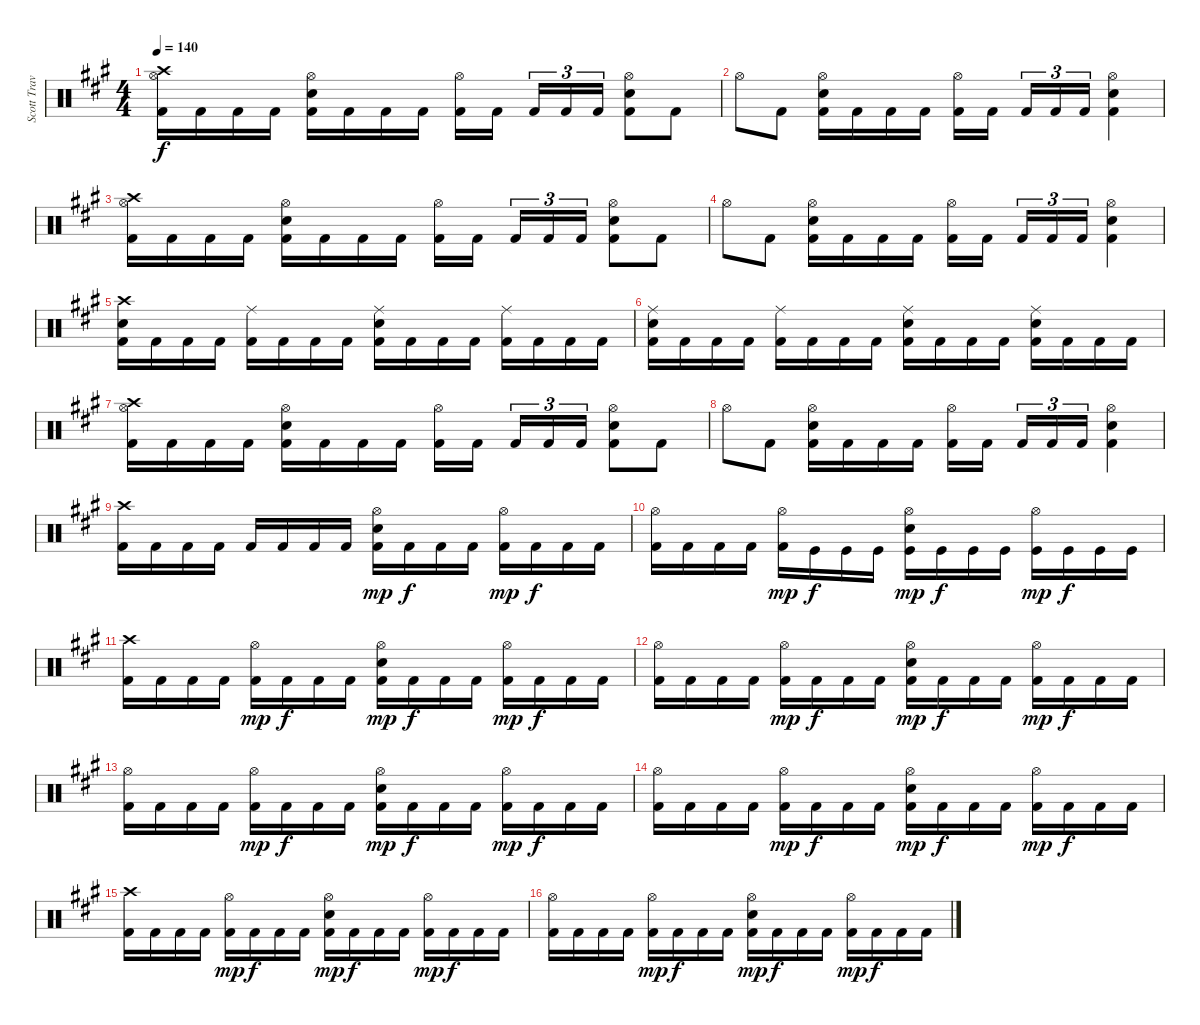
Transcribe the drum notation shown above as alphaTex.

\track ("Scott Travis" "Scott Trav") {instrument percussion}
\staff {score}
\articulation defaults
\ts (4 4)
\tempo 140
\clef neutral
\ks f#minor
("Hi-Hat (open)" "Crash high (hit)" "Kick (hit) 2").16{dy f} "Kick (hit) 2".16 "Kick (hit) 2".16 "Kick (hit) 2".16 ("Hi-Hat (open)" "Electric Snare (hit)" "Kick (hit) 2").16 "Kick (hit) 2".16 "Kick (hit) 2".16 "Kick (hit) 2".16 ("Hi-Hat (open)" "Kick (hit) 2").16 "Kick (hit) 2".16{beam splitsecondary} "Kick (hit) 2".16{tu (3 2)} "Kick (hit) 2".16{tu (3 2)} "Kick (hit) 2".16{tu (3 2)} ("Hi-Hat (open)" "Electric Snare (hit)" "Kick (hit) 2").8 "Kick (hit) 2".8 |
"Hi-Hat (open)".8 "Kick (hit) 2".8 ("Hi-Hat (open)" "Electric Snare (hit)" "Kick (hit) 2").16 "Kick (hit) 2".16 "Kick (hit) 2".16 "Kick (hit) 2".16 ("Hi-Hat (open)" "Kick (hit) 2").16 "Kick (hit) 2".16{beam splitsecondary} "Kick (hit) 2".16{tu (3 2)} "Kick (hit) 2".16{tu (3 2)} "Kick (hit) 2".16{tu (3 2)} ("Hi-Hat (open)" "Electric Snare (hit)" "Kick (hit) 2").4 |
("Hi-Hat (open)" "Crash high (hit)" "Kick (hit) 2").16 "Kick (hit) 2".16 "Kick (hit) 2".16 "Kick (hit) 2".16 ("Hi-Hat (open)" "Electric Snare (hit)" "Kick (hit) 2").16 "Kick (hit) 2".16 "Kick (hit) 2".16 "Kick (hit) 2".16 ("Hi-Hat (open)" "Kick (hit) 2").16 "Kick (hit) 2".16{beam splitsecondary} "Kick (hit) 2".16{tu (3 2)} "Kick (hit) 2".16{tu (3 2)} "Kick (hit) 2".16{tu (3 2)} ("Hi-Hat (open)" "Electric Snare (hit)" "Kick (hit) 2").8 "Kick (hit) 2".8 |
"Hi-Hat (open)".8 "Kick (hit) 2".8 ("Hi-Hat (open)" "Electric Snare (hit)" "Kick (hit) 2").16 "Kick (hit) 2".16 "Kick (hit) 2".16 "Kick (hit) 2".16 ("Hi-Hat (open)" "Kick (hit) 2").16 "Kick (hit) 2".16{beam splitsecondary} "Kick (hit) 2".16{tu (3 2)} "Kick (hit) 2".16{tu (3 2)} "Kick (hit) 2".16{tu (3 2)} ("Hi-Hat (open)" "Electric Snare (hit)" "Kick (hit) 2").4 |
("Crash high (hit)" "Electric Snare (hit)" "Kick (hit) 2").16 "Kick (hit) 2".16 "Kick (hit) 2".16 "Kick (hit) 2".16 ("Ride (middle)" "Kick (hit) 2").16 "Kick (hit) 2".16 "Kick (hit) 2".16 "Kick (hit) 2".16 ("Ride (middle)" "Electric Snare (hit)" "Kick (hit) 2").16 "Kick (hit) 2".16 "Kick (hit) 2".16 "Kick (hit) 2".16 ("Ride (middle)" "Kick (hit) 2").16 "Kick (hit) 2".16 "Kick (hit) 2".16 "Kick (hit) 2".16 |
("Ride (middle)" "Electric Snare (hit)" "Kick (hit) 2").16 "Kick (hit) 2".16 "Kick (hit) 2".16 "Kick (hit) 2".16 ("Ride (middle)" "Kick (hit) 2").16 "Kick (hit) 2".16 "Kick (hit) 2".16 "Kick (hit) 2".16 ("Ride (middle)" "Electric Snare (hit)" "Kick (hit) 2").16 "Kick (hit) 2".16 "Kick (hit) 2".16 "Kick (hit) 2".16 ("Ride (middle)" "Electric Snare (hit)" "Kick (hit) 2").16 "Kick (hit) 2".16 "Kick (hit) 2".16 "Kick (hit) 2".16 |
("Hi-Hat (open)" "Crash high (hit)" "Kick (hit) 2").16 "Kick (hit) 2".16 "Kick (hit) 2".16 "Kick (hit) 2".16 ("Hi-Hat (open)" "Electric Snare (hit)" "Kick (hit) 2").16 "Kick (hit) 2".16 "Kick (hit) 2".16 "Kick (hit) 2".16 ("Hi-Hat (open)" "Kick (hit) 2").16 "Kick (hit) 2".16{beam splitsecondary} "Kick (hit) 2".16{tu (3 2)} "Kick (hit) 2".16{tu (3 2)} "Kick (hit) 2".16{tu (3 2)} ("Hi-Hat (open)" "Electric Snare (hit)" "Kick (hit) 2").8 "Kick (hit) 2".8 |
"Hi-Hat (open)".8 "Kick (hit) 2".8 ("Hi-Hat (open)" "Electric Snare (hit)" "Kick (hit) 2").16 "Kick (hit) 2".16 "Kick (hit) 2".16 "Kick (hit) 2".16 ("Hi-Hat (open)" "Kick (hit) 2").16 "Kick (hit) 2".16{beam splitsecondary} "Kick (hit) 2".16{tu (3 2)} "Kick (hit) 2".16{tu (3 2)} "Kick (hit) 2".16{tu (3 2)} ("Hi-Hat (open)" "Electric Snare (hit)" "Kick (hit) 2").4 |
("Crash high (hit)" "Kick (hit) 2").16 "Kick (hit) 2".16 "Kick (hit) 2".16 "Kick (hit) 2".16 "Kick (hit) 2".16 "Kick (hit) 2".16 "Kick (hit) 2".16 "Kick (hit) 2".16 ("Hi-Hat (open)" "Electric Snare (hit)" "Kick (hit) 2").16{dy mp} "Kick (hit) 2".16{dy f} "Kick (hit) 2".16 "Kick (hit) 2".16 ("Hi-Hat (open)" "Kick (hit) 2").16{dy mp} "Kick (hit) 2".16{dy f} "Kick (hit) 2".16 "Kick (hit) 2".16 |
("Hi-Hat (open)" "Kick (hit) 2").16 "Kick (hit) 2".16 "Kick (hit) 2".16 "Kick (hit) 2".16 ("Hi-Hat (open)" "Kick (hit) 2").16{dy mp} "Kick (hit)".16{dy f} "Kick (hit)".16 "Kick (hit)".16 ("Hi-Hat (open)" "Electric Snare (hit)" "Kick (hit)").16{dy mp} "Kick (hit)".16{dy f} "Kick (hit)".16 "Kick (hit)".16 ("Hi-Hat (open)" "Kick (hit)").16{dy mp} "Kick (hit)".16{dy f} "Kick (hit)".16 "Kick (hit)".16 |
("Crash high (hit)" "Kick (hit) 2").16 "Kick (hit) 2".16 "Kick (hit) 2".16 "Kick (hit) 2".16 ("Hi-Hat (open)" "Kick (hit) 2").16{dy mp} "Kick (hit) 2".16{dy f} "Kick (hit) 2".16 "Kick (hit) 2".16 ("Hi-Hat (open)" "Electric Snare (hit)" "Kick (hit) 2").16{dy mp} "Kick (hit) 2".16{dy f} "Kick (hit) 2".16 "Kick (hit) 2".16 ("Hi-Hat (open)" "Kick (hit) 2").16{dy mp} "Kick (hit) 2".16{dy f} "Kick (hit) 2".16 "Kick (hit) 2".16 |
("Hi-Hat (open)" "Kick (hit) 2").16 "Kick (hit) 2".16 "Kick (hit) 2".16 "Kick (hit) 2".16 ("Hi-Hat (open)" "Kick (hit) 2").16{dy mp} "Kick (hit) 2".16{dy f} "Kick (hit) 2".16 "Kick (hit) 2".16 ("Hi-Hat (open)" "Electric Snare (hit)" "Kick (hit) 2").16{dy mp} "Kick (hit) 2".16{dy f} "Kick (hit) 2".16 "Kick (hit) 2".16 ("Hi-Hat (open)" "Kick (hit) 2").16{dy mp} "Kick (hit) 2".16{dy f} "Kick (hit) 2".16 "Kick (hit) 2".16 |
("Hi-Hat (open)" "Kick (hit) 2").16 "Kick (hit) 2".16 "Kick (hit) 2".16 "Kick (hit) 2".16 ("Hi-Hat (open)" "Kick (hit) 2").16{dy mp} "Kick (hit) 2".16{dy f} "Kick (hit) 2".16 "Kick (hit) 2".16 ("Hi-Hat (open)" "Electric Snare (hit)" "Kick (hit) 2").16{dy mp} "Kick (hit) 2".16{dy f} "Kick (hit) 2".16 "Kick (hit) 2".16 ("Hi-Hat (open)" "Kick (hit) 2").16{dy mp} "Kick (hit) 2".16{dy f} "Kick (hit) 2".16 "Kick (hit) 2".16 |
("Hi-Hat (open)" "Kick (hit) 2").16 "Kick (hit) 2".16 "Kick (hit) 2".16 "Kick (hit) 2".16 ("Hi-Hat (open)" "Kick (hit) 2").16{dy mp} "Kick (hit) 2".16{dy f} "Kick (hit) 2".16 "Kick (hit) 2".16 ("Hi-Hat (open)" "Electric Snare (hit)" "Kick (hit) 2").16{dy mp} "Kick (hit) 2".16{dy f} "Kick (hit) 2".16 "Kick (hit) 2".16 ("Hi-Hat (open)" "Kick (hit) 2").16{dy mp} "Kick (hit) 2".16{dy f} "Kick (hit) 2".16 "Kick (hit) 2".16 |
("Crash high (hit)" "Kick (hit) 2").16 "Kick (hit) 2".16 "Kick (hit) 2".16 "Kick (hit) 2".16 ("Hi-Hat (open)" "Kick (hit) 2").16{dy mp} "Kick (hit) 2".16{dy f} "Kick (hit) 2".16 "Kick (hit) 2".16 ("Hi-Hat (open)" "Electric Snare (hit)" "Kick (hit) 2").16{dy mp} "Kick (hit) 2".16{dy f} "Kick (hit) 2".16 "Kick (hit) 2".16 ("Hi-Hat (open)" "Kick (hit) 2").16{dy mp} "Kick (hit) 2".16{dy f} "Kick (hit) 2".16 "Kick (hit) 2".16 |
("Hi-Hat (open)" "Kick (hit) 2").16 "Kick (hit) 2".16 "Kick (hit) 2".16 "Kick (hit) 2".16 ("Hi-Hat (open)" "Kick (hit) 2").16{dy mp} "Kick (hit) 2".16{dy f} "Kick (hit) 2".16 "Kick (hit) 2".16 ("Hi-Hat (open)" "Electric Snare (hit)" "Kick (hit) 2").16{dy mp} "Kick (hit) 2".16{dy f} "Kick (hit) 2".16 "Kick (hit) 2".16 ("Hi-Hat (open)" "Kick (hit) 2").16{dy mp} "Kick (hit) 2".16{dy f} "Kick (hit) 2".16 "Kick (hit) 2".16
